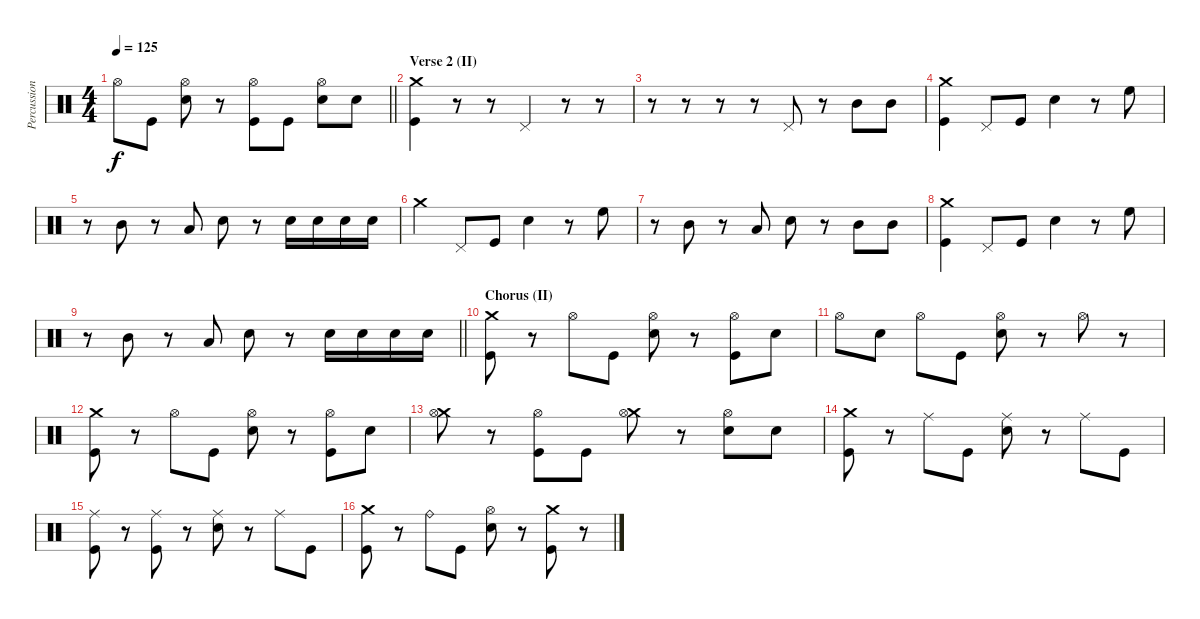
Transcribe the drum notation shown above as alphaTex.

\track ("Percussion" "Percussion") {instrument percussion}
\staff {score}
\articulation defaults
\ts (4 4)
\tempo 125
\clef neutral
\barLineRight lightlight
\ks c "Hi-Hat (open)".8{dy f} "Kick (hit)".8
("Hi-Hat (open)" "Snare (hit) 2").8 r.8 ("Hi-Hat (open)" "Kick (hit)").8 "Kick (hit)".8 ("Hi-Hat (open)" "Snare (hit) 2").8 "Snare (hit) 2".8 |
\section ("" "Verse 2 (II)")
("Crash medium (hit)" "Kick (hit)").4 r.8 r.8 "Pedal Hi-Hat (hit)".4 r.8 r.8 |
r.8 r.8 r.8 r.8 "Pedal Hi-Hat (hit)".8 r.8 "Mid Tom (hit)".8 "Mid Tom (hit)".8 |
("Crash medium (hit)" "Kick (hit)").4 "Pedal Hi-Hat (hit)".8 "Kick (hit)".8 "Snare (hit) 2".4 r.8 "High Floor Tom (hit)".8 |
r.8 "Mid Tom (hit)".8 r.8 "Low Tom (hit)".8 "Snare (hit) 2".8 r.8 "Snare (hit) 2".16 "Snare (hit) 2".16 "Snare (hit) 2".16 "Snare (hit) 2".16 |
"Crash medium (hit)".4 "Pedal Hi-Hat (hit)".8 "Kick (hit)".8 "Snare (hit) 2".4 r.8 "High Floor Tom (hit)".8 |
r.8 "Mid Tom (hit)".8 r.8 "Low Tom (hit)".8 "Snare (hit) 2".8 r.8 "Mid Tom (hit)".8 "Mid Tom (hit)".8 |
("Crash medium (hit)" "Kick (hit)").4 "Pedal Hi-Hat (hit)".8 "Kick (hit)".8 "Snare (hit) 2".4 r.8 "High Floor Tom (hit)".8 |
\barLineRight lightlight
r.8 "Mid Tom (hit)".8 r.8 "Low Tom (hit)".8 "Snare (hit) 2".8 r.8 "Snare (hit) 2".16 "Snare (hit) 2".16 "Snare (hit) 2".16 "Snare (hit) 2".16 |
\section ("" "Chorus (II)")
("Crash medium (hit)" "Kick (hit)").8 r.8 "Hi-Hat (open)".8 "Kick (hit)".8 ("Hi-Hat (open)" "Snare (hit) 2").8 r.8 ("Hi-Hat (open)" "Kick (hit)").8 "Snare (hit) 2".8 |
"Hi-Hat (open)".8 "Snare (hit) 2".8 "Hi-Hat (open)".8 "Kick (hit)".8 ("Hi-Hat (open)" "Snare (hit) 2").8 r.8 "Hi-Hat (open)".8 r.8 |
("Crash medium (hit)" "Kick (hit)").8 r.8 "Hi-Hat (open)".8 "Kick (hit)".8 ("Hi-Hat (open)" "Snare (hit) 2").8 r.8 ("Hi-Hat (open)" "Kick (hit)").8 "Snare (hit) 2".8 |
("Crash medium (hit)" "Hi-Hat (open)").8 r.8 ("Hi-Hat (open)" "Kick (hit)").8 "Kick (hit)".8 ("Crash medium (hit)" "Hi-Hat (open)").8 r.8 ("Hi-Hat (open)" "Snare (hit) 2").8 "Snare (hit) 2".8 |
("Crash medium (hit)" "Kick (hit)").8 r.8 "Ride (middle)".8 "Kick (hit)".8 ("Ride (middle)" "Snare (hit) 2").8 r.8 "Ride (middle)".8 "Kick (hit)".8 |
("Ride (middle)" "Kick (hit)").8 r.8 ("Ride (middle)" "Kick (hit)").8 r.8 ("Ride (middle)" "Snare (hit) 2").8 r.8 "Ride (middle)".8 "Kick (hit)".8 |
("Crash medium (hit)" "Kick (hit)").8 r.8 "Ride (bell)".8 "Kick (hit)".8 ("Hi-Hat (open)" "Snare (hit) 2").8 r.8 ("Crash medium (hit)" "Kick (hit)").8 r.8
